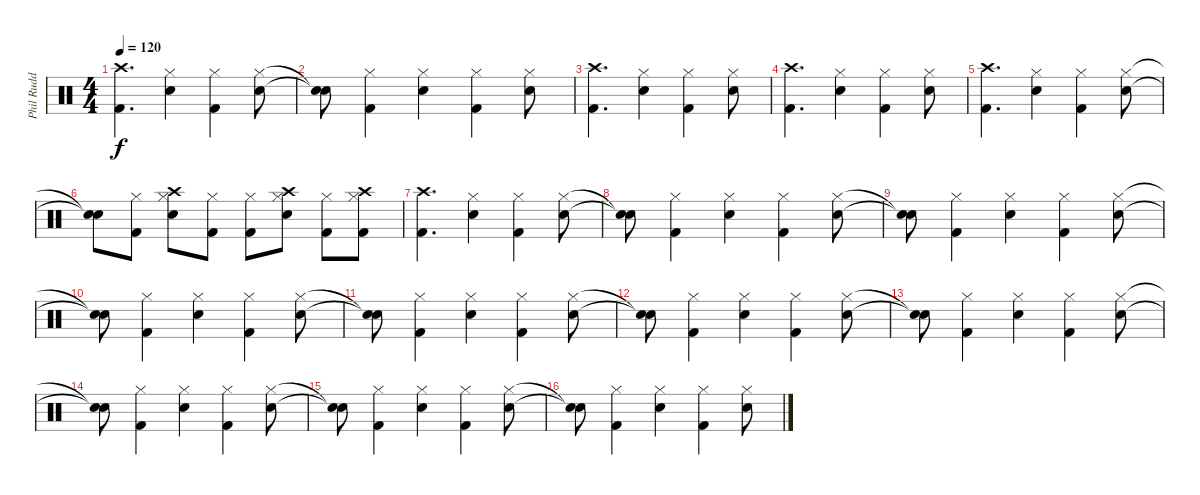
\track ("Phil Rudd - Drums" "Phil Rudd ") {instrument percussion}
\staff {score}
\articulation defaults
\ts (4 4)
\tempo 120
\clef neutral
\ks c
("Crash high (hit)" "Kick (hit) 2").4{d dy f} ("Hi-Hat (closed)" "Snare (hit) 2").4 ("Hi-Hat (closed)" "Kick (hit) 2").4 ("Hi-Hat (closed)" "Snare (hit) 2").8 |
("Snare (hit)"{t} "Snare (hit)"{t}).8 ("Hi-Hat (closed)" "Kick (hit) 2").4 ("Hi-Hat (closed)" "Snare (hit) 2").4 ("Hi-Hat (closed)" "Kick (hit) 2").4 ("Hi-Hat (closed)" "Snare (hit) 2").8 |
("Crash high (hit)" "Kick (hit) 2").4{d} ("Hi-Hat (closed)" "Snare (hit) 2").4 ("Hi-Hat (closed)" "Kick (hit) 2").4 ("Hi-Hat (closed)" "Snare (hit) 2").8 |
("Crash high (hit)" "Kick (hit) 2").4{d} ("Hi-Hat (closed)" "Snare (hit) 2").4 ("Hi-Hat (closed)" "Kick (hit) 2").4 ("Hi-Hat (closed)" "Snare (hit) 2").8 |
("Crash high (hit)" "Kick (hit) 2").4{d} ("Hi-Hat (closed)" "Snare (hit) 2").4 ("Hi-Hat (closed)" "Kick (hit) 2").4 ("Hi-Hat (closed)" "Snare (hit) 2").8 |
("Snare (hit)"{t} "Snare (hit)"{t}).8 ("Hi-Hat (closed)" "Kick (hit) 2").8 ("Crash high (hit)" "Hi-Hat (closed)" "Snare (hit) 2").8 ("Hi-Hat (closed)" "Kick (hit) 2").8 ("Hi-Hat (closed)" "Kick (hit) 2").8 ("Crash high (hit)" "Hi-Hat (closed)" "Snare (hit) 2").8 ("Hi-Hat (closed)" "Kick (hit) 2").8 ("Crash high (hit)" "Hi-Hat (closed)" "Kick (hit) 2").8 |
("Crash high (hit)" "Kick (hit) 2").4{d} ("Hi-Hat (closed)" "Snare (hit) 2").4 ("Hi-Hat (closed)" "Kick (hit) 2").4 ("Hi-Hat (closed)" "Snare (hit) 2").8 |
("Snare (hit)"{t} "Snare (hit)"{t}).8 ("Hi-Hat (closed)" "Kick (hit) 2").4 ("Hi-Hat (closed)" "Snare (hit) 2").4 ("Hi-Hat (closed)" "Kick (hit) 2").4 ("Hi-Hat (closed)" "Snare (hit) 2").8 |
("Snare (hit)"{t} "Snare (hit)"{t}).8 ("Hi-Hat (closed)" "Kick (hit) 2").4 ("Hi-Hat (closed)" "Snare (hit) 2").4 ("Hi-Hat (closed)" "Kick (hit) 2").4 ("Hi-Hat (closed)" "Snare (hit) 2").8 |
("Snare (hit)"{t} "Snare (hit)"{t}).8 ("Hi-Hat (closed)" "Kick (hit) 2").4 ("Hi-Hat (closed)" "Snare (hit) 2").4 ("Hi-Hat (closed)" "Kick (hit) 2").4 ("Hi-Hat (closed)" "Snare (hit) 2").8 |
("Snare (hit)"{t} "Snare (hit)"{t}).8 ("Hi-Hat (closed)" "Kick (hit) 2").4 ("Hi-Hat (closed)" "Snare (hit) 2").4 ("Hi-Hat (closed)" "Kick (hit) 2").4 ("Hi-Hat (closed)" "Snare (hit) 2").8 |
("Snare (hit)"{t} "Snare (hit)"{t}).8 ("Hi-Hat (closed)" "Kick (hit) 2").4 ("Hi-Hat (closed)" "Snare (hit) 2").4 ("Hi-Hat (closed)" "Kick (hit) 2").4 ("Hi-Hat (closed)" "Snare (hit) 2").8 |
("Snare (hit)"{t} "Snare (hit)"{t}).8 ("Hi-Hat (closed)" "Kick (hit) 2").4 ("Hi-Hat (closed)" "Snare (hit) 2").4 ("Hi-Hat (closed)" "Kick (hit) 2").4 ("Hi-Hat (closed)" "Snare (hit) 2").8 |
("Snare (hit)"{t} "Snare (hit)"{t}).8 ("Hi-Hat (closed)" "Kick (hit) 2").4 ("Hi-Hat (closed)" "Snare (hit) 2").4 ("Hi-Hat (closed)" "Kick (hit) 2").4 ("Hi-Hat (closed)" "Snare (hit) 2").8 |
("Snare (hit)"{t} "Snare (hit)"{t}).8 ("Hi-Hat (closed)" "Kick (hit) 2").4 ("Hi-Hat (closed)" "Snare (hit) 2").4 ("Hi-Hat (closed)" "Kick (hit) 2").4 ("Hi-Hat (closed)" "Snare (hit) 2").8 |
("Snare (hit)"{t} "Snare (hit)"{t}).8 ("Hi-Hat (closed)" "Kick (hit) 2").4 ("Hi-Hat (closed)" "Snare (hit) 2").4 ("Hi-Hat (closed)" "Kick (hit) 2").4 ("Hi-Hat (closed)" "Snare (hit) 2").8
